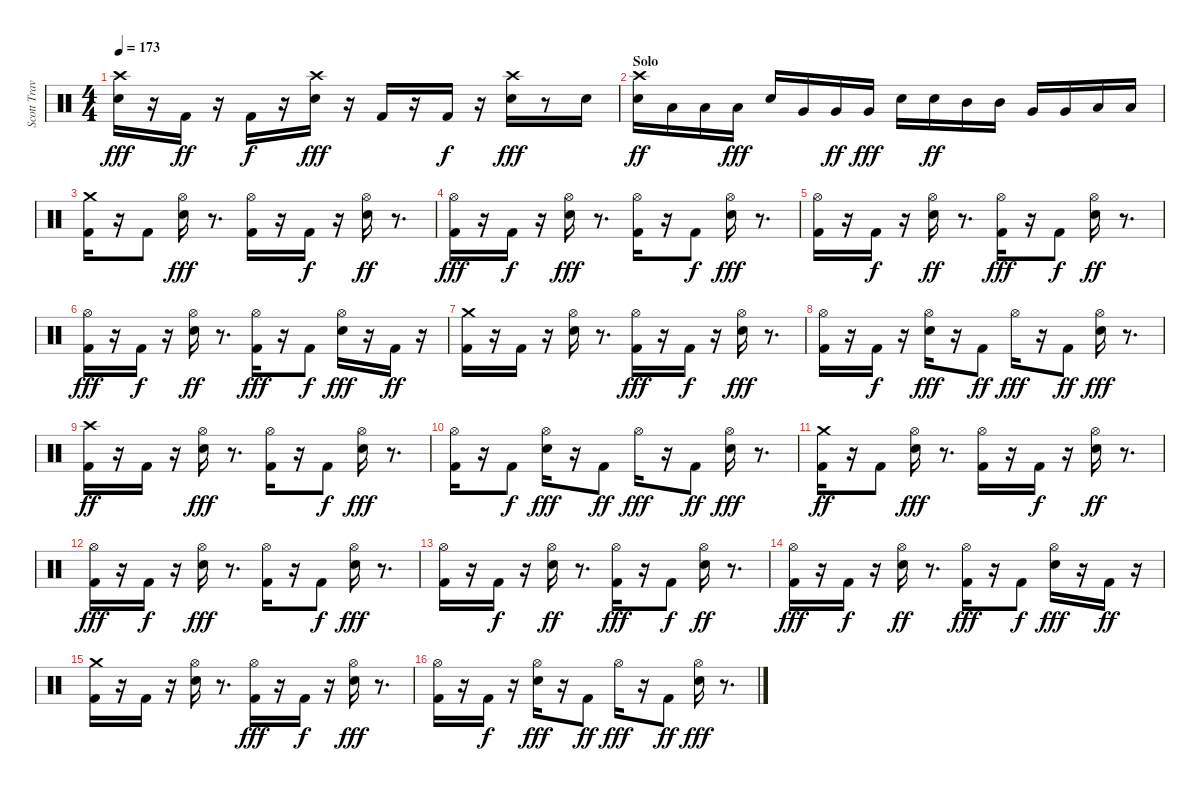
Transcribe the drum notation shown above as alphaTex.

\track ("Scott Travis" "Scott Trav") {instrument percussion}
\staff {score}
\articulation defaults
\ts (4 4)
\tempo 173
\clef neutral
\ks c
("Crash high (hit)" "Snare (hit) 2").16{dy fff} r.16 "Kick (hit) 2".16{dy ff} r.16 "Kick (hit) 2".16{dy f} r.16 ("Crash high (hit)" "Snare (hit) 2").16{dy fff} r.16 "Kick (hit) 2".16 r.16 "Kick (hit) 2".16{dy f} r.16 ("Crash high (hit)" "Snare (hit) 2").16{dy fff} r.8 "Snare (hit) 2".16 |
\section ("" "Solo")
("Crash high (hit)" "Snare (hit) 2").16{dy ff} "Low Tom (hit)".16 "Low Tom (hit)".16 "Low Tom (hit)".16{dy fff} "Snare (hit) 2".16 "Very Low Tom (hit)".16 "Very Low Tom (hit)".16{dy ff} "Very Low Tom (hit)".16{dy fff} "Snare (hit) 2".16 "Snare (hit) 2".16{dy ff} "Mid Tom (hit)".16 "Mid Tom (hit)".16 "Very Low Tom (hit)".16 "Very Low Tom (hit)".16 "Low Floor Tom (hit)".16 "Low Floor Tom (hit)".16 |
("Kick (hit) 2" "Crash medium (hit)").16 r.16 "Kick (hit) 2".8 ("Hi-Hat (open)" "Snare (hit) 2").16{dy fff} r.8{d} ("Kick (hit) 2" "Hi-Hat (open)").16 r.16 "Kick (hit) 2".16{dy f} r.16 ("Hi-Hat (open)" "Snare (hit) 2").16{dy ff} r.8{d} |
("Hi-Hat (open)" "Kick (hit) 2").16{dy fff} r.16 "Kick (hit) 2".16{dy f} r.16 ("Snare (hit) 2" "Hi-Hat (open)").16{dy fff} r.8{d} ("Kick (hit) 2" "Hi-Hat (open)").16 r.16 "Kick (hit) 2".8{dy f} ("Snare (hit) 2" "Hi-Hat (open)").16{dy fff} r.8{d} |
("Kick (hit) 2" "Hi-Hat (open)").16 r.16 "Kick (hit) 2".16{dy f} r.16 ("Hi-Hat (open)" "Snare (hit) 2").16{dy ff} r.8{d} ("Kick (hit) 2" "Hi-Hat (open)").16{dy fff} r.16 "Kick (hit) 2".8{dy f} ("Hi-Hat (open)" "Snare (hit) 2").16{dy ff} r.8{d} |
("Kick (hit) 2" "Hi-Hat (open)").16{dy fff} r.16 "Kick (hit) 2".16{dy f} r.16 ("Hi-Hat (open)" "Snare (hit) 2").16{dy ff} r.8{d} ("Kick (hit) 2" "Hi-Hat (open)").16{dy fff} r.16 "Kick (hit) 2".8{dy f} ("Snare (hit) 2" "Hi-Hat (open)").16{dy fff} r.16 "Kick (hit) 2".16{dy ff} r.16 |
("Crash medium (hit)" "Kick (hit) 2").16 r.16 "Kick (hit) 2".16 r.16 ("Snare (hit) 2" "Hi-Hat (open)").16 r.8{d} ("Kick (hit) 2" "Hi-Hat (open)").16{dy fff} r.16 "Kick (hit) 2".16{dy f} r.16 ("Snare (hit) 2" "Hi-Hat (open)").16{dy fff} r.8{d} |
("Kick (hit) 2" "Hi-Hat (open)").16 r.16 "Kick (hit) 2".16{dy f} r.16 ("Snare (hit) 2" "Hi-Hat (open)").16{dy fff} r.16 "Kick (hit) 2".8{dy ff} "Hi-Hat (open)".16{dy fff} r.16 "Kick (hit) 2".8{dy ff} ("Snare (hit) 2" "Hi-Hat (open)").16{dy fff} r.8{d} |
("Crash high (hit)" "Kick (hit) 2").16{dy ff} r.16 "Kick (hit) 2".16 r.16 ("Hi-Hat (open)" "Snare (hit) 2").16{dy fff} r.8{d} ("Kick (hit) 2" "Hi-Hat (open)").16 r.16 "Kick (hit) 2".8{dy f} ("Snare (hit) 2" "Hi-Hat (open)").16{dy fff} r.8{d} |
("Kick (hit) 2" "Hi-Hat (open)").16 r.16 "Kick (hit) 2".8{dy f} ("Snare (hit) 2" "Hi-Hat (open)").16{dy fff} r.16 "Kick (hit) 2".8{dy ff} "Hi-Hat (open)".16{dy fff} r.16 "Kick (hit) 2".8{dy ff} ("Snare (hit) 2" "Hi-Hat (open)").16{dy fff} r.8{d} |
("Kick (hit) 2" "Crash medium (hit)").16{dy ff} r.16 "Kick (hit) 2".8 ("Hi-Hat (open)" "Snare (hit) 2").16{dy fff} r.8{d} ("Kick (hit) 2" "Hi-Hat (open)").16 r.16 "Kick (hit) 2".16{dy f} r.16 ("Hi-Hat (open)" "Snare (hit) 2").16{dy ff} r.8{d} |
("Hi-Hat (open)" "Kick (hit) 2").16{dy fff} r.16 "Kick (hit) 2".16{dy f} r.16 ("Snare (hit) 2" "Hi-Hat (open)").16{dy fff} r.8{d} ("Kick (hit) 2" "Hi-Hat (open)").16 r.16 "Kick (hit) 2".8{dy f} ("Snare (hit) 2" "Hi-Hat (open)").16{dy fff} r.8{d} |
("Kick (hit) 2" "Hi-Hat (open)").16 r.16 "Kick (hit) 2".16{dy f} r.16 ("Hi-Hat (open)" "Snare (hit) 2").16{dy ff} r.8{d} ("Kick (hit) 2" "Hi-Hat (open)").16{dy fff} r.16 "Kick (hit) 2".8{dy f} ("Hi-Hat (open)" "Snare (hit) 2").16{dy ff} r.8{d} |
("Kick (hit) 2" "Hi-Hat (open)").16{dy fff} r.16 "Kick (hit) 2".16{dy f} r.16 ("Hi-Hat (open)" "Snare (hit) 2").16{dy ff} r.8{d} ("Kick (hit) 2" "Hi-Hat (open)").16{dy fff} r.16 "Kick (hit) 2".8{dy f} ("Snare (hit) 2" "Hi-Hat (open)").16{dy fff} r.16 "Kick (hit) 2".16{dy ff} r.16 |
("Crash medium (hit)" "Kick (hit) 2").16 r.16 "Kick (hit) 2".16 r.16 ("Snare (hit) 2" "Hi-Hat (open)").16 r.8{d} ("Kick (hit) 2" "Hi-Hat (open)").16{dy fff} r.16 "Kick (hit) 2".16{dy f} r.16 ("Snare (hit) 2" "Hi-Hat (open)").16{dy fff} r.8{d} |
("Kick (hit) 2" "Hi-Hat (open)").16 r.16 "Kick (hit) 2".16{dy f} r.16 ("Snare (hit) 2" "Hi-Hat (open)").16{dy fff} r.16 "Kick (hit) 2".8{dy ff} "Hi-Hat (open)".16{dy fff} r.16 "Kick (hit) 2".8{dy ff} ("Snare (hit) 2" "Hi-Hat (open)").16{dy fff} r.8{d}
